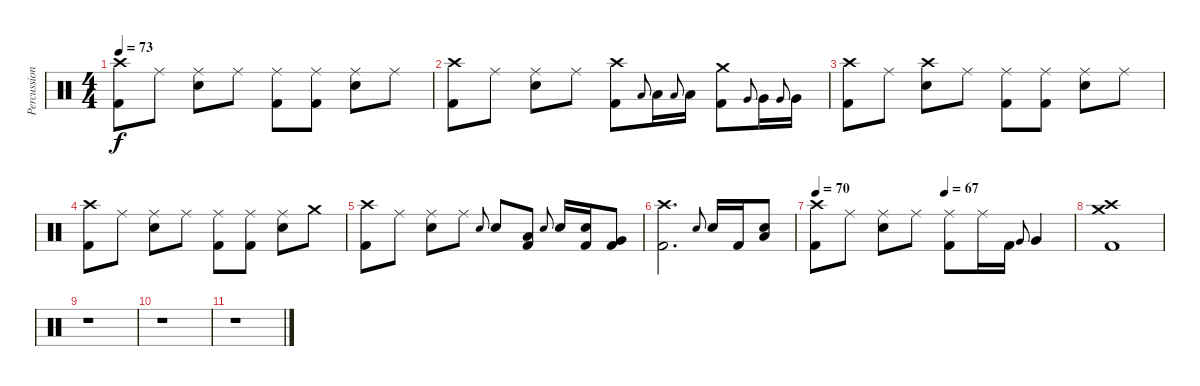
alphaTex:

\track ("Percussion" "Percussion") {instrument percussion}
\staff {score}
\articulation defaults
\ts (4 4)
\tempo 73
\clef neutral
\ks c
("Crash high (hit)" "Kick (hit) 2").8{dy f} "Ride (middle)".8 ("Ride (middle)" "Electric Snare (hit)").8 "Ride (middle)".8 ("Ride (middle)" "Kick (hit) 2").8 ("Ride (middle)" "Kick (hit) 2").8 ("Ride (middle)" "Electric Snare (hit)").8 "Ride (middle)".8 |
("Crash high (hit)" "Kick (hit) 2").8 "Ride (middle)".8 ("Ride (middle)" "Electric Snare (hit)").8 "Ride (middle)".8 ("Crash high (hit)" "Kick (hit) 2").8 "Low Tom (hit)".8{gr onbeat} "Low Tom (hit)".16 "Low Tom (hit)".8{gr onbeat} "Low Tom (hit)".16 ("Crash medium (hit)" "Kick (hit) 2").8 "Very Low Tom (hit)".8{gr onbeat} "Very Low Tom (hit)".16 "Very Low Tom (hit)".8{gr onbeat} "Very Low Tom (hit)".16 |
("Crash high (hit)" "Kick (hit) 2").8 "Ride (middle)".8 ("Crash high (hit)" "Electric Snare (hit)").8 "Ride (middle)".8 ("Ride (middle)" "Kick (hit) 2").8 ("Ride (middle)" "Kick (hit) 2").8 ("Ride (middle)" "Electric Snare (hit)").8 "Ride (middle)".8 |
("Crash high (hit)" "Kick (hit) 2").8 "Ride (middle)".8 ("Ride (middle)" "Electric Snare (hit)").8 "Ride (middle)".8 ("Ride (middle)" "Kick (hit) 2").8 ("Ride (middle)" "Kick (hit) 2").8 ("Ride (middle)" "Electric Snare (hit)").8 "Crash medium (hit)".8 |
("Crash high (hit)" "Kick (hit) 2").8 "Ride (middle)".8 ("Ride (middle)" "Electric Snare (hit)").8 "Ride (middle)".8 "Electric Snare (hit)".8{gr onbeat} "Electric Snare (hit)".8 ("Low Tom (hit)" "Kick (hit) 2").8 "Electric Snare (hit)".8{gr onbeat} "Electric Snare (hit)".16 ("Electric Snare (hit)" "Kick (hit) 2").16 ("Very Low Tom (hit)" "Kick (hit) 2").8 |
("Crash high (hit)" "Kick (hit) 2").2{d} "Electric Snare (hit)".8{gr onbeat} "Electric Snare (hit)".16 "Kick (hit) 2".16 ("Electric Snare (hit)" "Low Floor Tom (hit)").8 |
\tempo 70
\tempo (67 0.5)
("Crash high (hit)" "Kick (hit) 2").8 "Ride (middle)".8 ("Ride (middle)" "Electric Snare (hit)").8 "Ride (middle)".8 ("Ride (middle)" "Kick (hit) 2").8 "Ride (middle)".16 "Kick (hit) 2".16 "Very Low Tom (hit)".8{gr onbeat} "Very Low Tom (hit)".4 |
("Crash medium (hit)" "Crash high (hit)" "Kick (hit) 2").1 |
r.1 |
r.1 |
r.1
